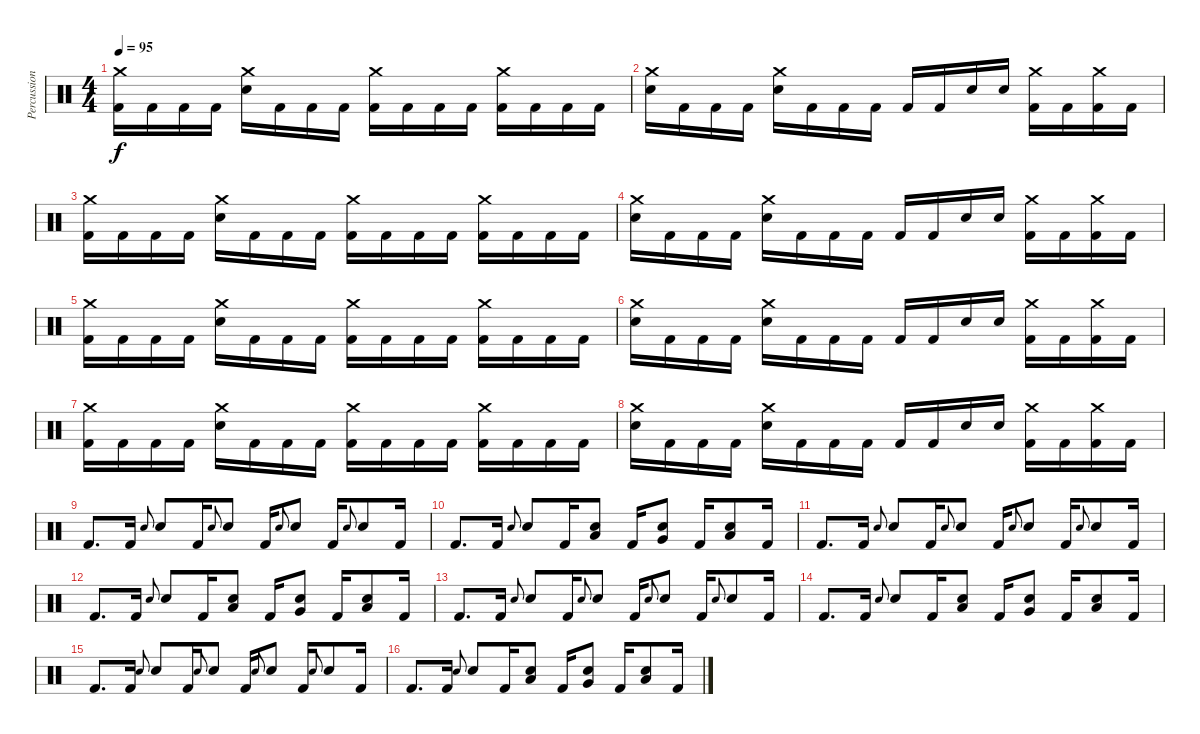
\track ("Percussion" "Percussion") {instrument percussion}
\staff {score}
\articulation defaults
\ts (4 4)
\tempo 95
\clef neutral
\ks c
("Crash medium (hit)" "Kick (hit) 2").16{dy f} "Kick (hit) 2".16 "Kick (hit) 2".16 "Kick (hit) 2".16 ("Crash medium (hit)" "Electric Snare (hit)").16 "Kick (hit) 2".16 "Kick (hit) 2".16 "Kick (hit) 2".16 ("Crash medium (hit)" "Kick (hit) 2").16 "Kick (hit) 2".16 "Kick (hit) 2".16 "Kick (hit) 2".16 ("Crash medium (hit)" "Kick (hit) 2").16 "Kick (hit) 2".16 "Kick (hit) 2".16 "Kick (hit) 2".16 |
("Crash medium (hit)" "Electric Snare (hit)").16 "Kick (hit) 2".16 "Kick (hit) 2".16 "Kick (hit) 2".16 ("Crash medium (hit)" "Electric Snare (hit)").16 "Kick (hit) 2".16 "Kick (hit) 2".16 "Kick (hit) 2".16 "Kick (hit) 2".16 "Kick (hit) 2".16 "Electric Snare (hit)".16 "Electric Snare (hit)".16 ("Crash medium (hit)" "Kick (hit) 2").16 "Kick (hit) 2".16 ("Crash medium (hit)" "Kick (hit) 2").16 "Kick (hit) 2".16 |
("Crash medium (hit)" "Kick (hit) 2").16 "Kick (hit) 2".16 "Kick (hit) 2".16 "Kick (hit) 2".16 ("Crash medium (hit)" "Electric Snare (hit)").16 "Kick (hit) 2".16 "Kick (hit) 2".16 "Kick (hit) 2".16 ("Crash medium (hit)" "Kick (hit) 2").16 "Kick (hit) 2".16 "Kick (hit) 2".16 "Kick (hit) 2".16 ("Crash medium (hit)" "Kick (hit) 2").16 "Kick (hit) 2".16 "Kick (hit) 2".16 "Kick (hit) 2".16 |
("Crash medium (hit)" "Electric Snare (hit)").16 "Kick (hit) 2".16 "Kick (hit) 2".16 "Kick (hit) 2".16 ("Crash medium (hit)" "Electric Snare (hit)").16 "Kick (hit) 2".16 "Kick (hit) 2".16 "Kick (hit) 2".16 "Kick (hit) 2".16 "Kick (hit) 2".16 "Electric Snare (hit)".16 "Electric Snare (hit)".16 ("Crash medium (hit)" "Kick (hit) 2").16 "Kick (hit) 2".16 ("Crash medium (hit)" "Kick (hit) 2").16 "Kick (hit) 2".16 |
("Crash medium (hit)" "Kick (hit) 2").16 "Kick (hit) 2".16 "Kick (hit) 2".16 "Kick (hit) 2".16 ("Crash medium (hit)" "Electric Snare (hit)").16 "Kick (hit) 2".16 "Kick (hit) 2".16 "Kick (hit) 2".16 ("Crash medium (hit)" "Kick (hit) 2").16 "Kick (hit) 2".16 "Kick (hit) 2".16 "Kick (hit) 2".16 ("Crash medium (hit)" "Kick (hit) 2").16 "Kick (hit) 2".16 "Kick (hit) 2".16 "Kick (hit) 2".16 |
("Crash medium (hit)" "Electric Snare (hit)").16 "Kick (hit) 2".16 "Kick (hit) 2".16 "Kick (hit) 2".16 ("Crash medium (hit)" "Electric Snare (hit)").16 "Kick (hit) 2".16 "Kick (hit) 2".16 "Kick (hit) 2".16 "Kick (hit) 2".16 "Kick (hit) 2".16 "Electric Snare (hit)".16 "Electric Snare (hit)".16 ("Crash medium (hit)" "Kick (hit) 2").16 "Kick (hit) 2".16 ("Crash medium (hit)" "Kick (hit) 2").16 "Kick (hit) 2".16 |
("Crash medium (hit)" "Kick (hit) 2").16 "Kick (hit) 2".16 "Kick (hit) 2".16 "Kick (hit) 2".16 ("Crash medium (hit)" "Electric Snare (hit)").16 "Kick (hit) 2".16 "Kick (hit) 2".16 "Kick (hit) 2".16 ("Crash medium (hit)" "Kick (hit) 2").16 "Kick (hit) 2".16 "Kick (hit) 2".16 "Kick (hit) 2".16 ("Crash medium (hit)" "Kick (hit) 2").16 "Kick (hit) 2".16 "Kick (hit) 2".16 "Kick (hit) 2".16 |
("Crash medium (hit)" "Electric Snare (hit)").16 "Kick (hit) 2".16 "Kick (hit) 2".16 "Kick (hit) 2".16 ("Crash medium (hit)" "Electric Snare (hit)").16 "Kick (hit) 2".16 "Kick (hit) 2".16 "Kick (hit) 2".16 "Kick (hit) 2".16 "Kick (hit) 2".16 "Electric Snare (hit)".16 "Electric Snare (hit)".16 ("Crash medium (hit)" "Kick (hit) 2").16 "Kick (hit) 2".16 ("Crash medium (hit)" "Kick (hit) 2").16 "Kick (hit) 2".16 |
"Kick (hit) 2".8{d volume 12} "Kick (hit) 2".16 "Electric Snare (hit)".8{gr onbeat} "Electric Snare (hit)".8{volume 4} "Kick (hit) 2".16 "Electric Snare (hit)".8{gr onbeat} "Electric Snare (hit)".8 "Kick (hit) 2".16 "Electric Snare (hit)".8{gr onbeat} "Electric Snare (hit)".8 "Kick (hit) 2".16 "Electric Snare (hit)".8{gr onbeat} "Electric Snare (hit)".8 "Kick (hit) 2".16 |
"Kick (hit) 2".8{d volume 12} "Kick (hit) 2".16 "Electric Snare (hit)".8{gr onbeat} "Electric Snare (hit)".8{volume 4} "Kick (hit) 2".16 ("Electric Snare (hit)" "Low Tom (hit)").8 "Kick (hit) 2".16 ("Electric Snare (hit)" "Very Low Tom (hit)").8 "Kick (hit) 2".16 ("Electric Snare (hit)" "Low Floor Tom (hit)").8 "Kick (hit) 2".16 |
"Kick (hit) 2".8{d volume 12} "Kick (hit) 2".16 "Electric Snare (hit)".8{gr onbeat} "Electric Snare (hit)".8{volume 4} "Kick (hit) 2".16 "Electric Snare (hit)".8{gr onbeat} "Electric Snare (hit)".8 "Kick (hit) 2".16 "Electric Snare (hit)".8{gr onbeat} "Electric Snare (hit)".8 "Kick (hit) 2".16 "Electric Snare (hit)".8{gr onbeat} "Electric Snare (hit)".8 "Kick (hit) 2".16 |
"Kick (hit) 2".8{d volume 12} "Kick (hit) 2".16 "Electric Snare (hit)".8{gr onbeat} "Electric Snare (hit)".8{volume 4} "Kick (hit) 2".16 ("Electric Snare (hit)" "Low Tom (hit)").8 "Kick (hit) 2".16 ("Electric Snare (hit)" "Very Low Tom (hit)").8 "Kick (hit) 2".16 ("Electric Snare (hit)" "Low Floor Tom (hit)").8 "Kick (hit) 2".16 |
"Kick (hit) 2".8{d volume 12} "Kick (hit) 2".16 "Electric Snare (hit)".8{gr onbeat} "Electric Snare (hit)".8{volume 4} "Kick (hit) 2".16 "Electric Snare (hit)".8{gr onbeat} "Electric Snare (hit)".8 "Kick (hit) 2".16 "Electric Snare (hit)".8{gr onbeat} "Electric Snare (hit)".8 "Kick (hit) 2".16 "Electric Snare (hit)".8{gr onbeat} "Electric Snare (hit)".8 "Kick (hit) 2".16 |
"Kick (hit) 2".8{d volume 12} "Kick (hit) 2".16 "Electric Snare (hit)".8{gr onbeat} "Electric Snare (hit)".8{volume 4} "Kick (hit) 2".16 ("Electric Snare (hit)" "Low Tom (hit)").8 "Kick (hit) 2".16 ("Electric Snare (hit)" "Very Low Tom (hit)").8 "Kick (hit) 2".16 ("Electric Snare (hit)" "Low Floor Tom (hit)").8 "Kick (hit) 2".16 |
"Kick (hit) 2".8{d volume 12} "Kick (hit) 2".16 "Electric Snare (hit)".8{gr onbeat} "Electric Snare (hit)".8{volume 4} "Kick (hit) 2".16 "Electric Snare (hit)".8{gr onbeat} "Electric Snare (hit)".8 "Kick (hit) 2".16 "Electric Snare (hit)".8{gr onbeat} "Electric Snare (hit)".8 "Kick (hit) 2".16 "Electric Snare (hit)".8{gr onbeat} "Electric Snare (hit)".8 "Kick (hit) 2".16 |
"Kick (hit) 2".8{d volume 12} "Kick (hit) 2".16 "Electric Snare (hit)".8{gr onbeat} "Electric Snare (hit)".8{volume 4} "Kick (hit) 2".16 ("Electric Snare (hit)" "Low Tom (hit)").8 "Kick (hit) 2".16 ("Electric Snare (hit)" "Very Low Tom (hit)").8 "Kick (hit) 2".16 ("Electric Snare (hit)" "Low Floor Tom (hit)").8 "Kick (hit) 2".16
